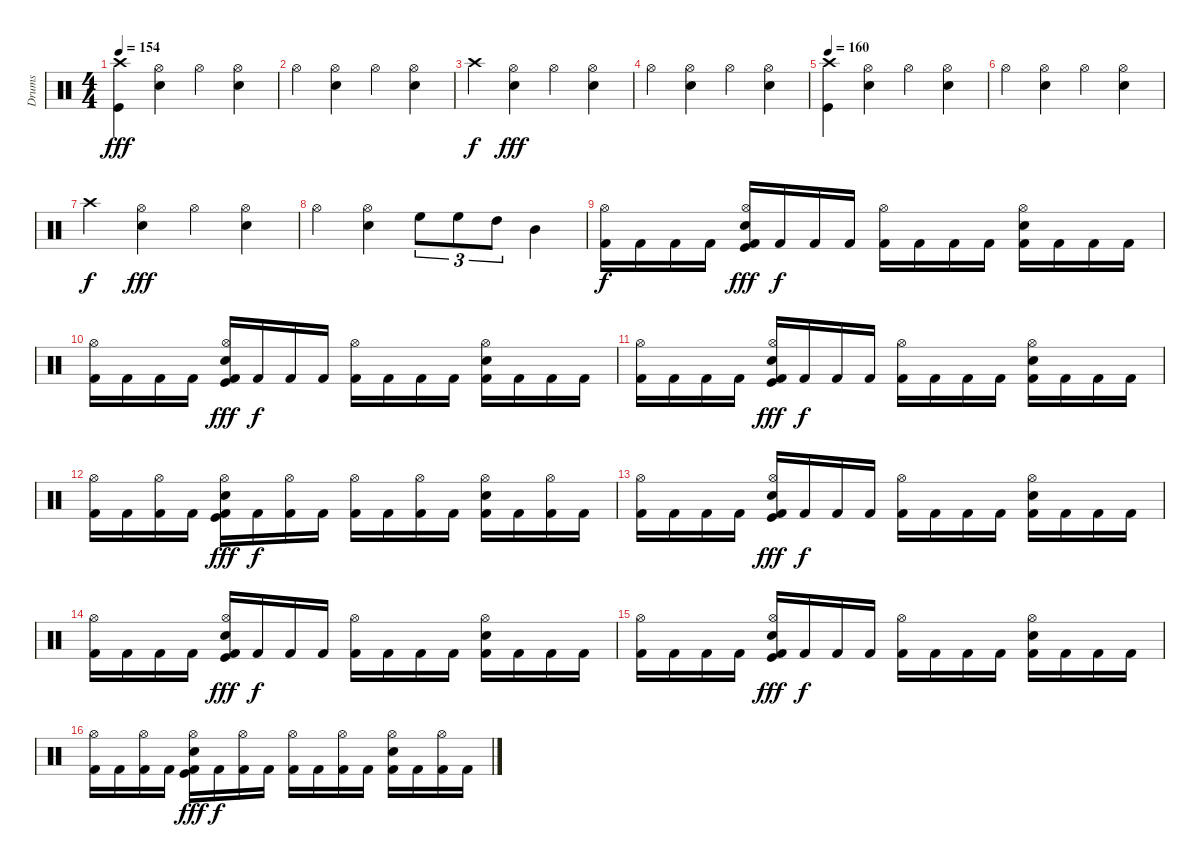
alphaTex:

\track ("Drums" "Drums") {instrument percussion}
\staff {score}
\articulation defaults
\ts (4 4)
\tempo 154
\tempo 160
\tempo 154
\clef neutral
\ks c
("Crash high (hit)" "Kick (hit)").4{dy fff} ("Hi-Hat (open)" "Snare (hit) 2").4 "Hi-Hat (open)".4 ("Hi-Hat (open)" "Snare (hit) 2").4 |
"Hi-Hat (open)".4 ("Hi-Hat (open)" "Snare (hit) 2").4 "Hi-Hat (open)".4 ("Hi-Hat (open)" "Snare (hit) 2").4 |
"Crash high (hit)".4{dy f} ("Hi-Hat (open)" "Snare (hit) 2").4{dy fff} "Hi-Hat (open)".4 ("Hi-Hat (open)" "Snare (hit) 2").4 |
"Hi-Hat (open)".4 ("Hi-Hat (open)" "Snare (hit) 2").4 "Hi-Hat (open)".4 ("Hi-Hat (open)" "Snare (hit) 2").4 |
\tempo 160
("Crash high (hit)" "Kick (hit)").4 ("Hi-Hat (open)" "Snare (hit) 2").4 "Hi-Hat (open)".4 ("Hi-Hat (open)" "Snare (hit) 2").4 |
"Hi-Hat (open)".4 ("Hi-Hat (open)" "Snare (hit) 2").4 "Hi-Hat (open)".4 ("Hi-Hat (open)" "Snare (hit) 2").4 |
"Crash high (hit)".4{dy f} ("Hi-Hat (open)" "Snare (hit) 2").4{dy fff} "Hi-Hat (open)".4 ("Hi-Hat (open)" "Snare (hit) 2").4 |
"Hi-Hat (open)".4 ("Hi-Hat (open)" "Snare (hit) 2").4 "High Floor Tom (hit)".8{tu (3 2)} "High Floor Tom (hit)".8{tu (3 2)} "High Tom (hit)".8{tu (3 2)} "Mid Tom (hit)".4 |
("Kick (hit) 2" "Hi-Hat (open)").16{dy f} "Kick (hit) 2".16 "Kick (hit) 2".16 "Kick (hit) 2".16 ("Kick (hit) 2" "Snare (hit) 2" "Kick (hit)" "Hi-Hat (open)").16{dy fff} "Kick (hit) 2".16{dy f} "Kick (hit) 2".16 "Kick (hit) 2".16 ("Kick (hit) 2" "Hi-Hat (open)").16 "Kick (hit) 2".16 "Kick (hit) 2".16 "Kick (hit) 2".16 ("Kick (hit) 2" "Snare (hit) 2" "Hi-Hat (open)").16 "Kick (hit) 2".16 "Kick (hit) 2".16 "Kick (hit) 2".16 |
("Kick (hit) 2" "Hi-Hat (open)").16 "Kick (hit) 2".16 "Kick (hit) 2".16 "Kick (hit) 2".16 ("Kick (hit) 2" "Snare (hit) 2" "Kick (hit)" "Hi-Hat (open)").16{dy fff} "Kick (hit) 2".16{dy f} "Kick (hit) 2".16 "Kick (hit) 2".16 ("Kick (hit) 2" "Hi-Hat (open)").16 "Kick (hit) 2".16 "Kick (hit) 2".16 "Kick (hit) 2".16 ("Kick (hit) 2" "Snare (hit) 2" "Hi-Hat (open)").16 "Kick (hit) 2".16 "Kick (hit) 2".16 "Kick (hit) 2".16 |
("Kick (hit) 2" "Hi-Hat (open)").16 "Kick (hit) 2".16 "Kick (hit) 2".16 "Kick (hit) 2".16 ("Kick (hit) 2" "Snare (hit) 2" "Kick (hit)" "Hi-Hat (open)").16{dy fff} "Kick (hit) 2".16{dy f} "Kick (hit) 2".16 "Kick (hit) 2".16 ("Kick (hit) 2" "Hi-Hat (open)").16 "Kick (hit) 2".16 "Kick (hit) 2".16 "Kick (hit) 2".16 ("Kick (hit) 2" "Snare (hit) 2" "Hi-Hat (open)").16 "Kick (hit) 2".16 "Kick (hit) 2".16 "Kick (hit) 2".16 |
("Kick (hit) 2" "Hi-Hat (open)").16 "Kick (hit) 2".16 ("Kick (hit) 2" "Hi-Hat (open)").16 "Kick (hit) 2".16 ("Kick (hit) 2" "Snare (hit) 2" "Kick (hit)" "Hi-Hat (open)").16{dy fff} "Kick (hit) 2".16{dy f} ("Kick (hit) 2" "Hi-Hat (open)").16 "Kick (hit) 2".16 ("Kick (hit) 2" "Hi-Hat (open)").16 "Kick (hit) 2".16 ("Kick (hit) 2" "Hi-Hat (open)").16 "Kick (hit) 2".16 ("Kick (hit) 2" "Snare (hit) 2" "Hi-Hat (open)").16 "Kick (hit) 2".16 ("Kick (hit) 2" "Hi-Hat (open)").16 "Kick (hit) 2".16 |
("Kick (hit) 2" "Hi-Hat (open)").16 "Kick (hit) 2".16 "Kick (hit) 2".16 "Kick (hit) 2".16 ("Kick (hit) 2" "Snare (hit) 2" "Kick (hit)" "Hi-Hat (open)").16{dy fff} "Kick (hit) 2".16{dy f} "Kick (hit) 2".16 "Kick (hit) 2".16 ("Kick (hit) 2" "Hi-Hat (open)").16 "Kick (hit) 2".16 "Kick (hit) 2".16 "Kick (hit) 2".16 ("Kick (hit) 2" "Snare (hit) 2" "Hi-Hat (open)").16 "Kick (hit) 2".16 "Kick (hit) 2".16 "Kick (hit) 2".16 |
("Kick (hit) 2" "Hi-Hat (open)").16 "Kick (hit) 2".16 "Kick (hit) 2".16 "Kick (hit) 2".16 ("Kick (hit) 2" "Snare (hit) 2" "Kick (hit)" "Hi-Hat (open)").16{dy fff} "Kick (hit) 2".16{dy f} "Kick (hit) 2".16 "Kick (hit) 2".16 ("Kick (hit) 2" "Hi-Hat (open)").16 "Kick (hit) 2".16 "Kick (hit) 2".16 "Kick (hit) 2".16 ("Kick (hit) 2" "Snare (hit) 2" "Hi-Hat (open)").16 "Kick (hit) 2".16 "Kick (hit) 2".16 "Kick (hit) 2".16 |
("Kick (hit) 2" "Hi-Hat (open)").16 "Kick (hit) 2".16 "Kick (hit) 2".16 "Kick (hit) 2".16 ("Kick (hit) 2" "Snare (hit) 2" "Kick (hit)" "Hi-Hat (open)").16{dy fff} "Kick (hit) 2".16{dy f} "Kick (hit) 2".16 "Kick (hit) 2".16 ("Kick (hit) 2" "Hi-Hat (open)").16 "Kick (hit) 2".16 "Kick (hit) 2".16 "Kick (hit) 2".16 ("Kick (hit) 2" "Snare (hit) 2" "Hi-Hat (open)").16 "Kick (hit) 2".16 "Kick (hit) 2".16 "Kick (hit) 2".16 |
("Kick (hit) 2" "Hi-Hat (open)").16 "Kick (hit) 2".16 ("Kick (hit) 2" "Hi-Hat (open)").16 "Kick (hit) 2".16 ("Kick (hit) 2" "Snare (hit) 2" "Kick (hit)" "Hi-Hat (open)").16{dy fff} "Kick (hit) 2".16{dy f} ("Kick (hit) 2" "Hi-Hat (open)").16 "Kick (hit) 2".16 ("Kick (hit) 2" "Hi-Hat (open)").16 "Kick (hit) 2".16 ("Kick (hit) 2" "Hi-Hat (open)").16 "Kick (hit) 2".16 ("Kick (hit) 2" "Snare (hit) 2" "Hi-Hat (open)").16 "Kick (hit) 2".16 ("Kick (hit) 2" "Hi-Hat (open)").16 "Kick (hit) 2".16
